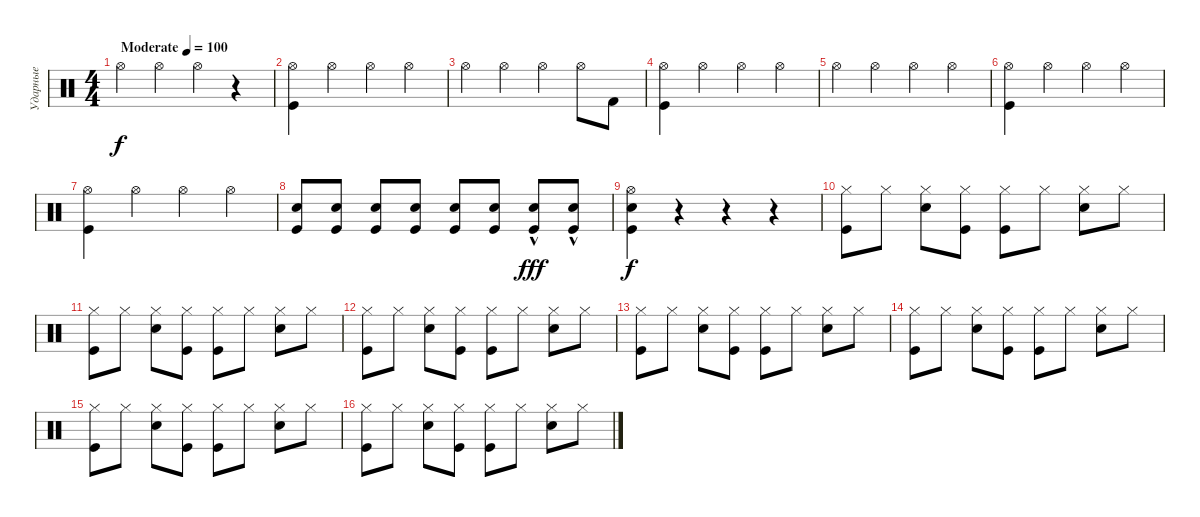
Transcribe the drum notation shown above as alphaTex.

\track ("Ударные" "Ударные") {instrument percussion}
\staff
\articulation defaults
\ts (4 4)
\tempo (100 "Moderate")
\clef neutral
\ks c "Hi-Hat (open)".4{dy f} "Hi-Hat (open)".4 "Hi-Hat (open)".4
r.4 |
("Hi-Hat (open)" "Kick (hit)").4 "Hi-Hat (open)".4 "Hi-Hat (open)".4 "Hi-Hat (open)".4 |
"Hi-Hat (open)".4 "Hi-Hat (open)".4 "Hi-Hat (open)".4 "Hi-Hat (open)".8 "Kick (hit) 2".8 |
("Hi-Hat (open)" "Kick (hit)").4 "Hi-Hat (open)".4 "Hi-Hat (open)".4 "Hi-Hat (open)".4 |
"Hi-Hat (open)".4 "Hi-Hat (open)".4 "Hi-Hat (open)".4 "Hi-Hat (open)".4 |
("Hi-Hat (open)" "Kick (hit)").4 "Hi-Hat (open)".4 "Hi-Hat (open)".4 "Hi-Hat (open)".4 |
("Hi-Hat (open)" "Kick (hit)").4 "Hi-Hat (open)".4 "Hi-Hat (open)".4 "Hi-Hat (open)".4 |
("Kick (hit)" "Electric Snare (hit)").8 ("Kick (hit)" "Electric Snare (hit)").8 ("Kick (hit)" "Electric Snare (hit)").8 ("Kick (hit)" "Electric Snare (hit)").8 ("Kick (hit)" "Electric Snare (hit)").8 ("Kick (hit)" "Electric Snare (hit)").8 ("Kick (hit)"{hac} "Electric Snare (hit)"{hac}).8{dy fff} ("Kick (hit)"{hac} "Electric Snare (hit)"{hac}).8 |
("Kick (hit)" "Electric Snare (hit)" "Hi-Hat (open)").4{dy f} r.4 r.4 r.4 |
("Hi-Hat (closed)" "Kick (hit)").8 "Hi-Hat (closed)".8 ("Hi-Hat (closed)" "Snare (hit) 2").8 ("Hi-Hat (closed)" "Kick (hit)").8 ("Hi-Hat (closed)" "Kick (hit)").8 "Hi-Hat (closed)".8 ("Hi-Hat (closed)" "Snare (hit) 2").8 "Hi-Hat (closed)".8 |
("Hi-Hat (closed)" "Kick (hit)").8 "Hi-Hat (closed)".8 ("Hi-Hat (closed)" "Snare (hit) 2").8 ("Hi-Hat (closed)" "Kick (hit)").8 ("Hi-Hat (closed)" "Kick (hit)").8 "Hi-Hat (closed)".8 ("Hi-Hat (closed)" "Snare (hit) 2").8 "Hi-Hat (closed)".8 |
("Hi-Hat (closed)" "Kick (hit)").8 "Hi-Hat (closed)".8 ("Hi-Hat (closed)" "Snare (hit) 2").8 ("Hi-Hat (closed)" "Kick (hit)").8 ("Hi-Hat (closed)" "Kick (hit)").8 "Hi-Hat (closed)".8 ("Hi-Hat (closed)" "Snare (hit) 2").8 "Hi-Hat (closed)".8 |
("Hi-Hat (closed)" "Kick (hit)").8 "Hi-Hat (closed)".8 ("Hi-Hat (closed)" "Snare (hit) 2").8 ("Hi-Hat (closed)" "Kick (hit)").8 ("Hi-Hat (closed)" "Kick (hit)").8 "Hi-Hat (closed)".8 ("Hi-Hat (closed)" "Snare (hit) 2").8 "Hi-Hat (closed)".8 |
("Hi-Hat (closed)" "Kick (hit)").8 "Hi-Hat (closed)".8 ("Hi-Hat (closed)" "Snare (hit) 2").8 ("Hi-Hat (closed)" "Kick (hit)").8 ("Hi-Hat (closed)" "Kick (hit)").8 "Hi-Hat (closed)".8 ("Hi-Hat (closed)" "Snare (hit) 2").8 "Hi-Hat (closed)".8 |
("Hi-Hat (closed)" "Kick (hit)").8 "Hi-Hat (closed)".8 ("Hi-Hat (closed)" "Snare (hit) 2").8 ("Hi-Hat (closed)" "Kick (hit)").8 ("Hi-Hat (closed)" "Kick (hit)").8 "Hi-Hat (closed)".8 ("Hi-Hat (closed)" "Snare (hit) 2").8 "Hi-Hat (closed)".8 |
("Hi-Hat (closed)" "Kick (hit)").8 "Hi-Hat (closed)".8 ("Hi-Hat (closed)" "Snare (hit) 2").8 ("Hi-Hat (closed)" "Kick (hit)").8 ("Hi-Hat (closed)" "Kick (hit)").8 "Hi-Hat (closed)".8 ("Hi-Hat (closed)" "Snare (hit) 2").8 "Hi-Hat (closed)".8
